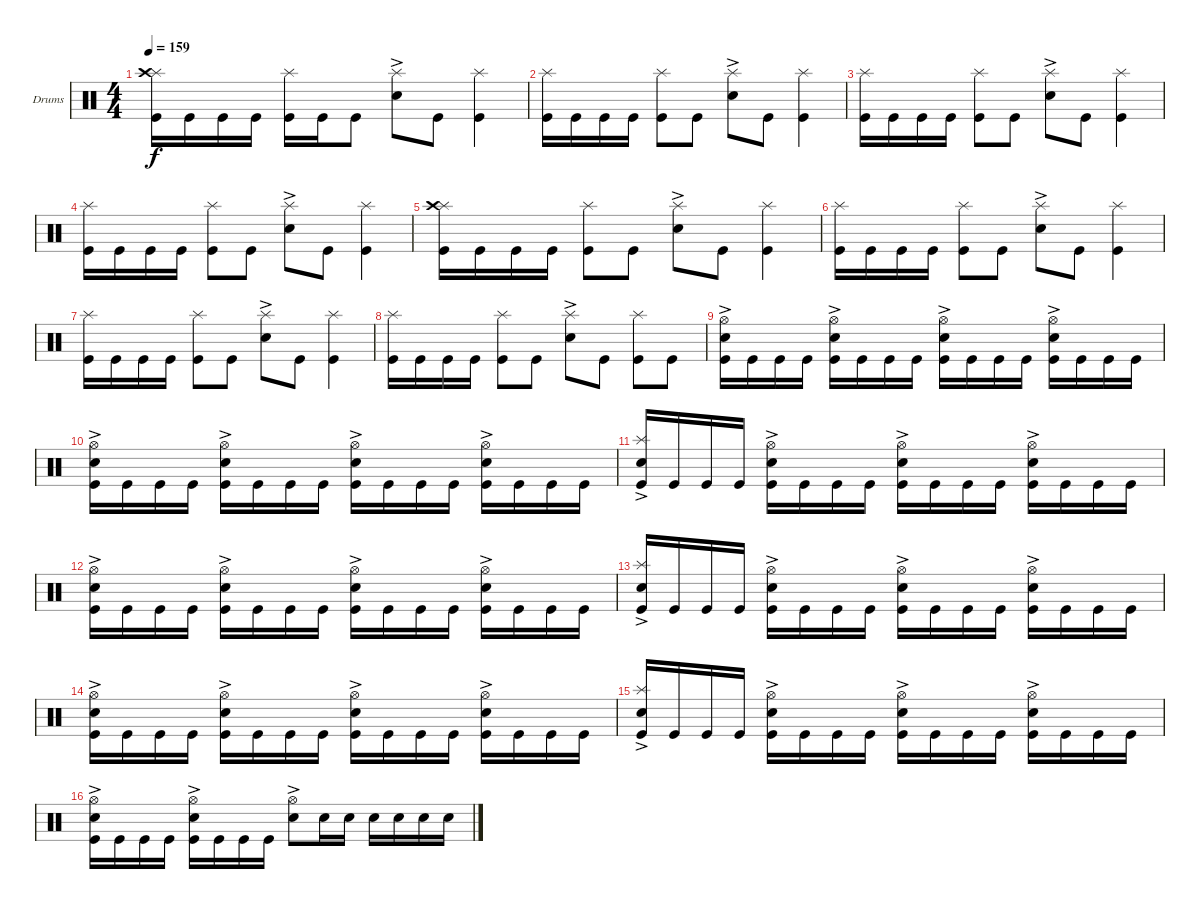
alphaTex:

\defaultSystemsLayout 4
\bracketExtendMode groupsimilarinstruments
\firstSystemTrackNameOrientation horizontal
\otherSystemsTrackNameOrientation horizontal
\track ("Drumkit" "Drums") {instrument percussion}
\staff {score}
\articulation defaults
\ts (4 4)
\tempo 159
\clef neutral
\ks c
("Kick (hit)" "Splash (hit)" "Crash high (hit)").16{dy f} "Kick (hit)".16 "Kick (hit)".16 "Kick (hit)".16 ("Kick (hit)" "Splash (hit)").16 "Kick (hit)".16 "Kick (hit)".8 ("Snare (hit) 2"{ac} "Splash (hit)").8 "Kick (hit)".8 ("Kick (hit)" "Splash (hit)").4 |
("Kick (hit)" "Splash (hit)").16 "Kick (hit)".16 "Kick (hit)".16 "Kick (hit)".16 ("Kick (hit)" "Splash (hit)").8 "Kick (hit)".8 ("Snare (hit) 2"{ac} "Splash (hit)").8 "Kick (hit)".8 ("Kick (hit)" "Splash (hit)").4 |
("Kick (hit)" "Splash (hit)").16 "Kick (hit)".16 "Kick (hit)".16 "Kick (hit)".16 ("Kick (hit)" "Splash (hit)").8 "Kick (hit)".8 ("Snare (hit) 2"{ac} "Splash (hit)").8 "Kick (hit)".8 ("Kick (hit)" "Splash (hit)").4 |
("Kick (hit)" "Splash (hit)").16 "Kick (hit)".16 "Kick (hit)".16 "Kick (hit)".16 ("Kick (hit)" "Splash (hit)").8 "Kick (hit)".8 ("Snare (hit) 2"{ac} "Splash (hit)").8 "Kick (hit)".8 ("Kick (hit)" "Splash (hit)").4 |
("Kick (hit)" "Splash (hit)" "Crash high (hit)").16 "Kick (hit)".16 "Kick (hit)".16 "Kick (hit)".16 ("Kick (hit)" "Splash (hit)").8 "Kick (hit)".8 ("Snare (hit) 2"{ac} "Splash (hit)").8 "Kick (hit)".8 ("Kick (hit)" "Splash (hit)").4 |
("Kick (hit)" "Splash (hit)").16 "Kick (hit)".16 "Kick (hit)".16 "Kick (hit)".16 ("Kick (hit)" "Splash (hit)").8 "Kick (hit)".8 ("Snare (hit) 2"{ac} "Splash (hit)").8 "Kick (hit)".8 ("Kick (hit)" "Splash (hit)").4 |
("Kick (hit)" "Splash (hit)").16 "Kick (hit)".16 "Kick (hit)".16 "Kick (hit)".16 ("Kick (hit)" "Splash (hit)").8 "Kick (hit)".8 ("Snare (hit) 2"{ac} "Splash (hit)").8 "Kick (hit)".8 ("Kick (hit)" "Splash (hit)").4 |
("Kick (hit)" "Splash (hit)").16 "Kick (hit)".16 "Kick (hit)".16 "Kick (hit)".16 ("Kick (hit)" "Splash (hit)").8 "Kick (hit)".8 ("Snare (hit) 2"{ac} "Splash (hit)").8 "Kick (hit)".8 ("Kick (hit)" "Splash (hit)").8 "Kick (hit)".8 |
("Kick (hit)" "Hi-Hat (open)" "Snare (hit) 2"{ac}).16 "Kick (hit)".16 "Kick (hit)".16 "Kick (hit)".16 ("Kick (hit)" "Hi-Hat (open)" "Snare (hit) 2"{ac}).16 "Kick (hit)".16 "Kick (hit)".16 "Kick (hit)".16 ("Kick (hit)" "Hi-Hat (open)" "Snare (hit) 2"{ac}).16 "Kick (hit)".16 "Kick (hit)".16 "Kick (hit)".16 ("Kick (hit)" "Hi-Hat (open)" "Snare (hit) 2"{ac}).16 "Kick (hit)".16 "Kick (hit)".16 "Kick (hit)".16 |
("Kick (hit)" "Hi-Hat (open)" "Snare (hit) 2"{ac}).16 "Kick (hit)".16 "Kick (hit)".16 "Kick (hit)".16 ("Kick (hit)" "Hi-Hat (open)" "Snare (hit) 2"{ac}).16 "Kick (hit)".16 "Kick (hit)".16 "Kick (hit)".16 ("Kick (hit)" "Hi-Hat (open)" "Snare (hit) 2"{ac}).16 "Kick (hit)".16 "Kick (hit)".16 "Kick (hit)".16 ("Kick (hit)" "Hi-Hat (open)" "Snare (hit) 2"{ac}).16 "Kick (hit)".16 "Kick (hit)".16 "Kick (hit)".16 |
("Kick (hit)" "Snare (hit) 2"{ac} "Splash (hit)").16 "Kick (hit)".16 "Kick (hit)".16 "Kick (hit)".16 ("Kick (hit)" "Hi-Hat (open)" "Snare (hit) 2"{ac}).16 "Kick (hit)".16 "Kick (hit)".16 "Kick (hit)".16 ("Kick (hit)" "Hi-Hat (open)" "Snare (hit) 2"{ac}).16 "Kick (hit)".16 "Kick (hit)".16 "Kick (hit)".16 ("Kick (hit)" "Hi-Hat (open)" "Snare (hit) 2"{ac}).16 "Kick (hit)".16 "Kick (hit)".16 "Kick (hit)".16 |
("Kick (hit)" "Hi-Hat (open)" "Snare (hit) 2"{ac}).16 "Kick (hit)".16 "Kick (hit)".16 "Kick (hit)".16 ("Kick (hit)" "Hi-Hat (open)" "Snare (hit) 2"{ac}).16 "Kick (hit)".16 "Kick (hit)".16 "Kick (hit)".16 ("Kick (hit)" "Hi-Hat (open)" "Snare (hit) 2"{ac}).16 "Kick (hit)".16 "Kick (hit)".16 "Kick (hit)".16 ("Kick (hit)" "Hi-Hat (open)" "Snare (hit) 2"{ac}).16 "Kick (hit)".16 "Kick (hit)".16 "Kick (hit)".16 |
("Kick (hit)" "Snare (hit) 2"{ac} "Splash (hit)").16 "Kick (hit)".16 "Kick (hit)".16 "Kick (hit)".16 ("Kick (hit)" "Hi-Hat (open)" "Snare (hit) 2"{ac}).16 "Kick (hit)".16 "Kick (hit)".16 "Kick (hit)".16 ("Kick (hit)" "Hi-Hat (open)" "Snare (hit) 2"{ac}).16 "Kick (hit)".16 "Kick (hit)".16 "Kick (hit)".16 ("Kick (hit)" "Hi-Hat (open)" "Snare (hit) 2"{ac}).16 "Kick (hit)".16 "Kick (hit)".16 "Kick (hit)".16 |
("Kick (hit)" "Hi-Hat (open)" "Snare (hit) 2"{ac}).16 "Kick (hit)".16 "Kick (hit)".16 "Kick (hit)".16 ("Kick (hit)" "Hi-Hat (open)" "Snare (hit) 2"{ac}).16 "Kick (hit)".16 "Kick (hit)".16 "Kick (hit)".16 ("Kick (hit)" "Hi-Hat (open)" "Snare (hit) 2"{ac}).16 "Kick (hit)".16 "Kick (hit)".16 "Kick (hit)".16 ("Kick (hit)" "Hi-Hat (open)" "Snare (hit) 2"{ac}).16 "Kick (hit)".16 "Kick (hit)".16 "Kick (hit)".16 |
("Kick (hit)" "Snare (hit) 2"{ac} "Splash (hit)").16 "Kick (hit)".16 "Kick (hit)".16 "Kick (hit)".16 ("Kick (hit)" "Hi-Hat (open)" "Snare (hit) 2"{ac}).16 "Kick (hit)".16 "Kick (hit)".16 "Kick (hit)".16 ("Kick (hit)" "Hi-Hat (open)" "Snare (hit) 2"{ac}).16 "Kick (hit)".16 "Kick (hit)".16 "Kick (hit)".16 ("Kick (hit)" "Hi-Hat (open)" "Snare (hit) 2"{ac}).16 "Kick (hit)".16 "Kick (hit)".16 "Kick (hit)".16 |
("Kick (hit)" "Hi-Hat (open)" "Snare (hit) 2"{ac}).16 "Kick (hit)".16 "Kick (hit)".16 "Kick (hit)".16 ("Kick (hit)" "Hi-Hat (open)" "Snare (hit) 2"{ac}).16 "Kick (hit)".16 "Kick (hit)".16 "Kick (hit)".16 ("Snare (hit) 2"{ac} "Hi-Hat (open)").8 "Snare (hit) 2".16 "Snare (hit) 2".16 "Snare (hit) 2".16 "Snare (hit) 2".16 "Snare (hit) 2".16 "Snare (hit) 2".16
